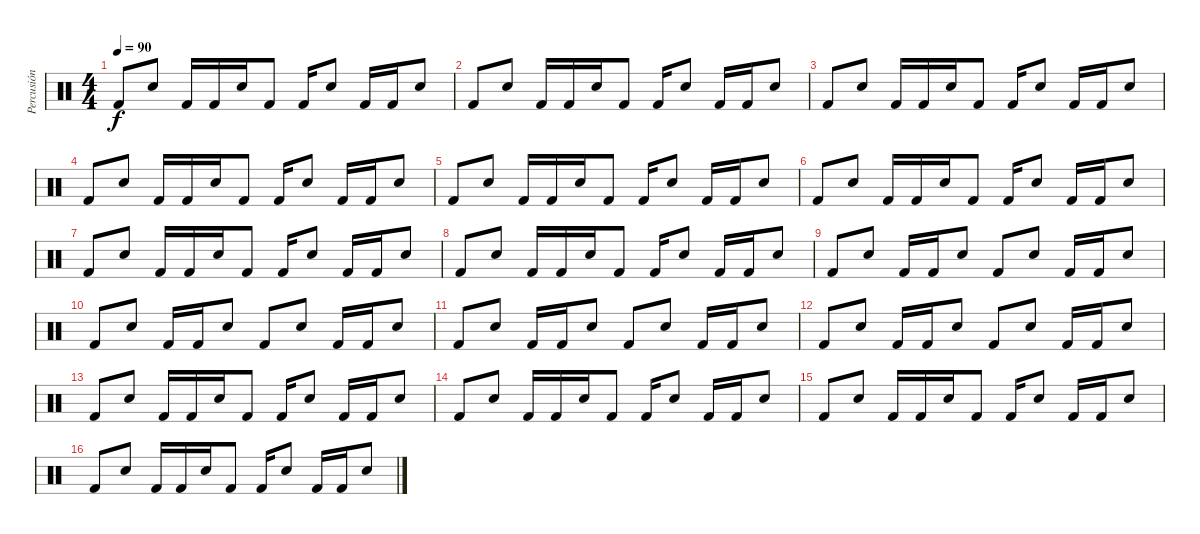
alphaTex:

\track ("Percusión" "Percusión") {instrument percussion}
\staff {score}
\articulation defaults
\ts (4 4)
\tempo 90
\clef neutral
\ks c "Kick (hit) 2".8{dy f} "Snare (hit) 2".8 "Kick (hit) 2".16 "Kick (hit) 2".16 "Snare (hit) 2".16 "Kick (hit) 2".8 "Kick (hit) 2".16 "Snare (hit) 2".8 "Kick (hit) 2".16 "Kick (hit) 2".16 "Snare (hit) 2".8
|
"Kick (hit) 2".8 "Snare (hit) 2".8 "Kick (hit) 2".16 "Kick (hit) 2".16 "Snare (hit) 2".16 "Kick (hit) 2".8 "Kick (hit) 2".16 "Snare (hit) 2".8 "Kick (hit) 2".16 "Kick (hit) 2".16 "Snare (hit) 2".8 |
"Kick (hit) 2".8 "Snare (hit) 2".8 "Kick (hit) 2".16 "Kick (hit) 2".16 "Snare (hit) 2".16 "Kick (hit) 2".8 "Kick (hit) 2".16 "Snare (hit) 2".8 "Kick (hit) 2".16 "Kick (hit) 2".16 "Snare (hit) 2".8 |
"Kick (hit) 2".8 "Snare (hit) 2".8 "Kick (hit) 2".16 "Kick (hit) 2".16 "Snare (hit) 2".16 "Kick (hit) 2".8 "Kick (hit) 2".16 "Snare (hit) 2".8 "Kick (hit) 2".16 "Kick (hit) 2".16 "Snare (hit) 2".8 |
"Kick (hit) 2".8 "Snare (hit) 2".8 "Kick (hit) 2".16 "Kick (hit) 2".16 "Snare (hit) 2".16 "Kick (hit) 2".8 "Kick (hit) 2".16 "Snare (hit) 2".8 "Kick (hit) 2".16 "Kick (hit) 2".16 "Snare (hit) 2".8 |
"Kick (hit) 2".8 "Snare (hit) 2".8 "Kick (hit) 2".16 "Kick (hit) 2".16 "Snare (hit) 2".16 "Kick (hit) 2".8 "Kick (hit) 2".16 "Snare (hit) 2".8 "Kick (hit) 2".16 "Kick (hit) 2".16 "Snare (hit) 2".8 |
"Kick (hit) 2".8 "Snare (hit) 2".8 "Kick (hit) 2".16 "Kick (hit) 2".16 "Snare (hit) 2".16 "Kick (hit) 2".8 "Kick (hit) 2".16 "Snare (hit) 2".8 "Kick (hit) 2".16 "Kick (hit) 2".16 "Snare (hit) 2".8 |
"Kick (hit) 2".8 "Snare (hit) 2".8 "Kick (hit) 2".16 "Kick (hit) 2".16 "Snare (hit) 2".16 "Kick (hit) 2".8 "Kick (hit) 2".16 "Snare (hit) 2".8 "Kick (hit) 2".16 "Kick (hit) 2".16 "Snare (hit) 2".8 |
"Kick (hit) 2".8 "Snare (hit) 2".8 "Kick (hit) 2".16 "Kick (hit) 2".16 "Snare (hit) 2".8 "Kick (hit) 2".8 "Snare (hit) 2".8 "Kick (hit) 2".16 "Kick (hit) 2".16 "Snare (hit) 2".8 |
"Kick (hit) 2".8 "Snare (hit) 2".8 "Kick (hit) 2".16 "Kick (hit) 2".16 "Snare (hit) 2".8 "Kick (hit) 2".8 "Snare (hit) 2".8 "Kick (hit) 2".16 "Kick (hit) 2".16 "Snare (hit) 2".8 |
"Kick (hit) 2".8 "Snare (hit) 2".8 "Kick (hit) 2".16 "Kick (hit) 2".16 "Snare (hit) 2".8 "Kick (hit) 2".8 "Snare (hit) 2".8 "Kick (hit) 2".16 "Kick (hit) 2".16 "Snare (hit) 2".8 |
"Kick (hit) 2".8 "Snare (hit) 2".8 "Kick (hit) 2".16 "Kick (hit) 2".16 "Snare (hit) 2".8 "Kick (hit) 2".8 "Snare (hit) 2".8 "Kick (hit) 2".16 "Kick (hit) 2".16 "Snare (hit) 2".8 |
"Kick (hit) 2".8 "Snare (hit) 2".8 "Kick (hit) 2".16 "Kick (hit) 2".16 "Snare (hit) 2".16 "Kick (hit) 2".8 "Kick (hit) 2".16 "Snare (hit) 2".8 "Kick (hit) 2".16 "Kick (hit) 2".16 "Snare (hit) 2".8 |
"Kick (hit) 2".8 "Snare (hit) 2".8 "Kick (hit) 2".16 "Kick (hit) 2".16 "Snare (hit) 2".16 "Kick (hit) 2".8 "Kick (hit) 2".16 "Snare (hit) 2".8 "Kick (hit) 2".16 "Kick (hit) 2".16 "Snare (hit) 2".8 |
"Kick (hit) 2".8 "Snare (hit) 2".8 "Kick (hit) 2".16 "Kick (hit) 2".16 "Snare (hit) 2".16 "Kick (hit) 2".8 "Kick (hit) 2".16 "Snare (hit) 2".8 "Kick (hit) 2".16 "Kick (hit) 2".16 "Snare (hit) 2".8 |
"Kick (hit) 2".8 "Snare (hit) 2".8 "Kick (hit) 2".16 "Kick (hit) 2".16 "Snare (hit) 2".16 "Kick (hit) 2".8 "Kick (hit) 2".16 "Snare (hit) 2".8 "Kick (hit) 2".16 "Kick (hit) 2".16 "Snare (hit) 2".8
